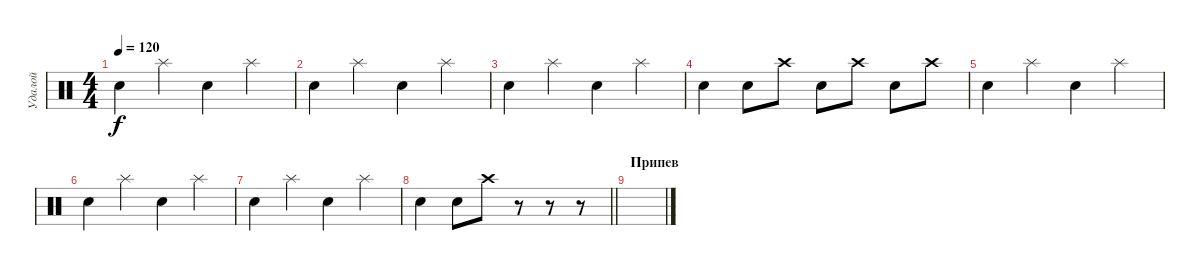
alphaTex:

\track ("Удалой" "Удалой") {instrument percussion}
\staff {score}
\articulation defaults
\ts (4 4)
\tempo 120
\clef neutral
\ks c "Snare (hit) 2".4{dy f} "Splash (hit)".4 "Snare (hit) 2".4 "Splash (hit)".4
|
"Snare (hit) 2".4 "Splash (hit)".4 "Snare (hit) 2".4 "Splash (hit)".4 |
"Snare (hit) 2".4 "Splash (hit)".4 "Snare (hit) 2".4 "Splash (hit)".4 |
"Snare (hit) 2".4 "Snare (hit) 2".8 "Crash high (hit)".8 "Snare (hit) 2".8 "Crash high (hit)".8 "Snare (hit) 2".8 "Crash high (hit)".8 |
"Snare (hit) 2".4 "Splash (hit)".4 "Snare (hit) 2".4 "Splash (hit)".4 |
"Snare (hit) 2".4 "Splash (hit)".4 "Snare (hit) 2".4 "Splash (hit)".4 |
"Snare (hit) 2".4 "Splash (hit)".4 "Snare (hit) 2".4 "Splash (hit)".4 |
\barLineRight lightlight "Snare (hit) 2".4 "Snare (hit) 2".8 "Crash high (hit)".8
r.8 r.8 r.8 |
\section ("" "Припев")
